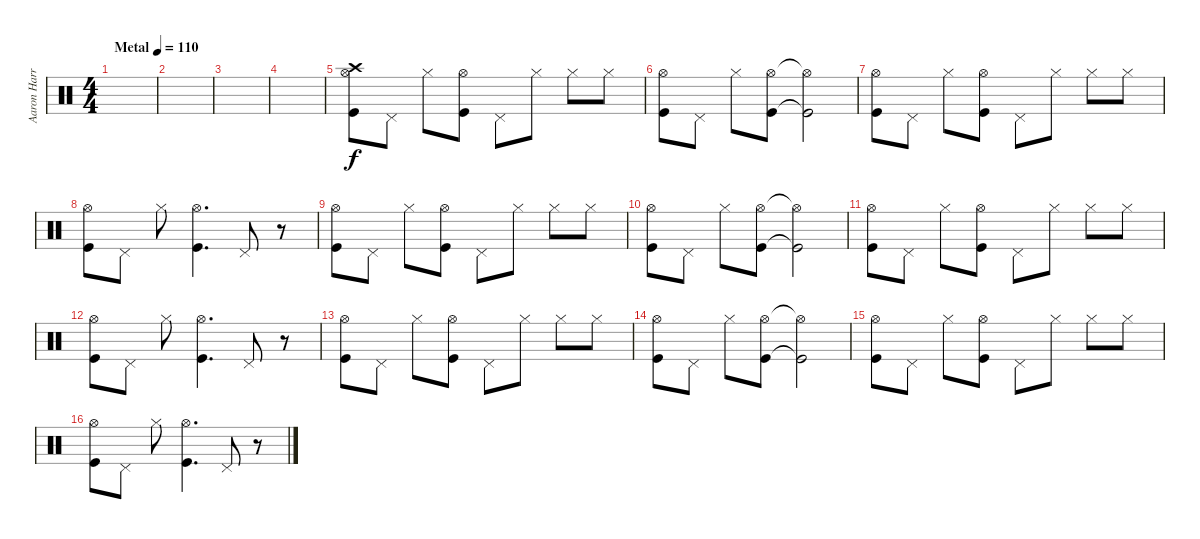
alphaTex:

\track ("Aaron Harris" "Aaron Harr") {instrument percussion}
\staff {score}
\articulation defaults
\ts (4 4)
\tempo (110 "Metal")
\clef neutral
\ks c
|
|
|
|
("Hi-Hat (open)" "Crash high (hit)" "Kick (hit)").8 "Pedal Hi-Hat (hit)".8 "Hi-Hat (closed)".8 ("Hi-Hat (open)" "Kick (hit)").8 "Pedal Hi-Hat (hit)".8 "Hi-Hat (closed)".8 "Hi-Hat (closed)".8 "Hi-Hat (closed)".8 |
("Hi-Hat (open)" "Kick (hit)").8 "Pedal Hi-Hat (hit)".8 "Hi-Hat (closed)".8 ("Hi-Hat (open)" "Kick (hit)").8 ("Hi-Hat (open)"{t} "Kick (hit)"{t}).2 |
("Hi-Hat (open)" "Kick (hit)").8 "Pedal Hi-Hat (hit)".8 "Hi-Hat (closed)".8 ("Hi-Hat (open)" "Kick (hit)").8 "Pedal Hi-Hat (hit)".8 "Hi-Hat (closed)".8 "Hi-Hat (closed)".8 "Hi-Hat (closed)".8 |
("Hi-Hat (open)" "Kick (hit)").8 "Pedal Hi-Hat (hit)".8 "Hi-Hat (closed)".8 ("Hi-Hat (open)" "Kick (hit)").4{d} "Pedal Hi-Hat (hit)".8 r.8 |
("Hi-Hat (open)" "Kick (hit)").8 "Pedal Hi-Hat (hit)".8 "Hi-Hat (closed)".8 ("Hi-Hat (open)" "Kick (hit)").8 "Pedal Hi-Hat (hit)".8 "Hi-Hat (closed)".8 "Hi-Hat (closed)".8 "Hi-Hat (closed)".8 |
("Hi-Hat (open)" "Kick (hit)").8 "Pedal Hi-Hat (hit)".8 "Hi-Hat (closed)".8 ("Hi-Hat (open)" "Kick (hit)").8 ("Hi-Hat (open)"{t} "Kick (hit)"{t}).2 |
("Hi-Hat (open)" "Kick (hit)").8 "Pedal Hi-Hat (hit)".8 "Hi-Hat (closed)".8 ("Hi-Hat (open)" "Kick (hit)").8 "Pedal Hi-Hat (hit)".8 "Hi-Hat (closed)".8 "Hi-Hat (closed)".8 "Hi-Hat (closed)".8 |
("Hi-Hat (open)" "Kick (hit)").8 "Pedal Hi-Hat (hit)".8 "Hi-Hat (closed)".8 ("Hi-Hat (open)" "Kick (hit)").4{d} "Pedal Hi-Hat (hit)".8 r.8 |
("Hi-Hat (open)" "Kick (hit)").8 "Pedal Hi-Hat (hit)".8 "Hi-Hat (closed)".8 ("Hi-Hat (open)" "Kick (hit)").8 "Pedal Hi-Hat (hit)".8 "Hi-Hat (closed)".8 "Hi-Hat (closed)".8 "Hi-Hat (closed)".8 |
("Hi-Hat (open)" "Kick (hit)").8 "Pedal Hi-Hat (hit)".8 "Hi-Hat (closed)".8 ("Hi-Hat (open)" "Kick (hit)").8 ("Hi-Hat (open)"{t} "Kick (hit)"{t}).2 |
("Hi-Hat (open)" "Kick (hit)").8 "Pedal Hi-Hat (hit)".8 "Hi-Hat (closed)".8 ("Hi-Hat (open)" "Kick (hit)").8 "Pedal Hi-Hat (hit)".8 "Hi-Hat (closed)".8 "Hi-Hat (closed)".8 "Hi-Hat (closed)".8 |
("Hi-Hat (open)" "Kick (hit)").8 "Pedal Hi-Hat (hit)".8 "Hi-Hat (closed)".8 ("Hi-Hat (open)" "Kick (hit)").4{d} "Pedal Hi-Hat (hit)".8 r.8
